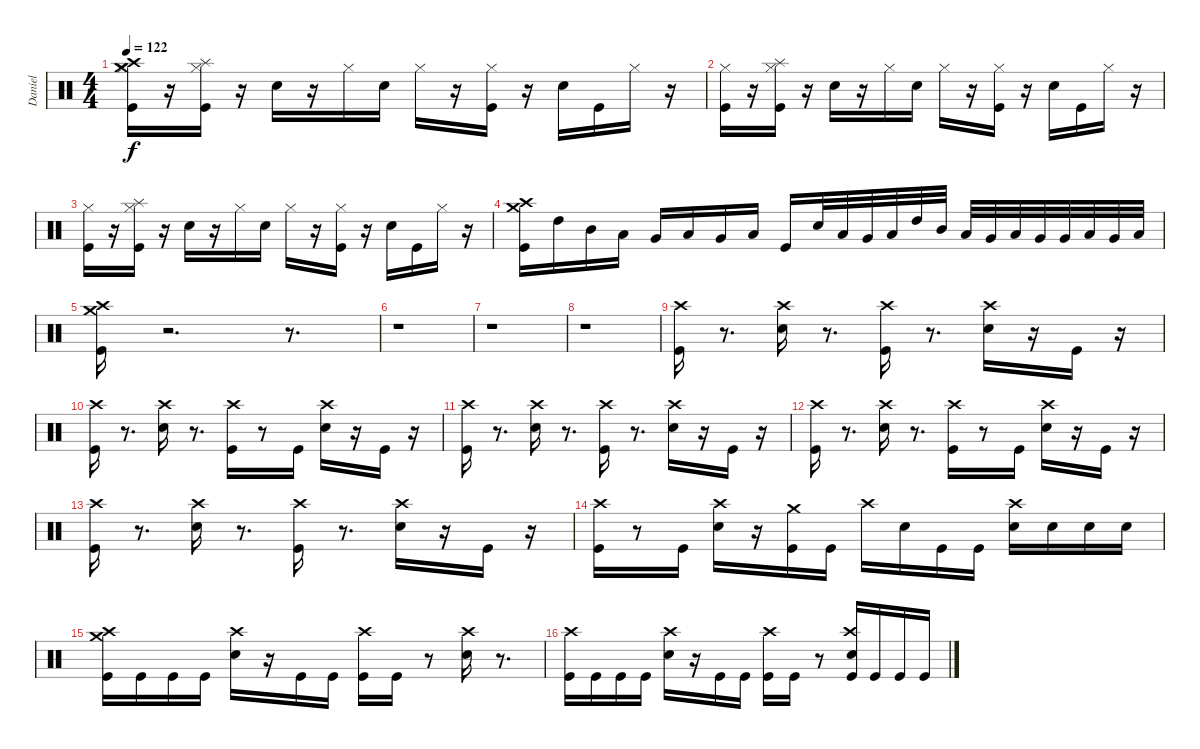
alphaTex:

\track ("Daniel" "Daniel") {instrument percussion}
\staff {score}
\articulation defaults
\ts (4 4)
\tempo 122
\clef neutral
\ks c
("Hi-Hat (closed)" "Kick (hit)" "Crash medium (hit)" "Crash high (hit)").16{dy f} r.16 ("Splash (hit)" "Kick (hit)" "Hi-Hat (closed)").16 r.16 "Electric Snare (hit)".16 r.16 "Hi-Hat (closed)".16 "Electric Snare (hit)".16 "Hi-Hat (closed)".16 r.16 ("Hi-Hat (closed)" "Kick (hit)").16 r.16 "Electric Snare (hit)".16 "Kick (hit)".16 "Hi-Hat (closed)".16 r.16 |
("Hi-Hat (closed)" "Kick (hit)").16 r.16 ("Splash (hit)" "Hi-Hat (closed)" "Kick (hit)").16 r.16 "Electric Snare (hit)".16 r.16 "Hi-Hat (closed)".16 "Electric Snare (hit)".16 "Hi-Hat (closed)".16 r.16 ("Hi-Hat (closed)" "Kick (hit)").16 r.16 "Electric Snare (hit)".16 "Kick (hit)".16 "Hi-Hat (closed)".16 r.16 |
("Hi-Hat (closed)" "Kick (hit)").16 r.16 ("Splash (hit)" "Hi-Hat (closed)" "Kick (hit)").16 r.16 "Electric Snare (hit)".16 r.16 "Hi-Hat (closed)".16 "Electric Snare (hit)".16 "Hi-Hat (closed)".16 r.16 ("Hi-Hat (closed)" "Kick (hit)").16 r.16 "Electric Snare (hit)".16 "Kick (hit)".16 "Hi-Hat (closed)".16 r.16 |
("Kick (hit)" "Crash medium (hit)" "Crash high (hit)").16 "High Tom (hit)".16 "Mid Tom (hit)".16 "Low Tom (hit)".16 "Very Low Tom (hit)".16 "Low Floor Tom (hit)".16 "Very Low Tom (hit)".16 "Low Tom (hit)".16 "Kick (hit)".16 "Snare (hit) 2".32 "Low Tom (hit)".32 "Very Low Tom (hit)".32 "Low Floor Tom (hit)".32 "High Tom (hit)".32 "Mid Tom (hit)".32 "Low Tom (hit)".32 "Very Low Tom (hit)".32 "Low Tom (hit)".32 "Very Low Tom (hit)".32 "Very Low Tom (hit)".32 "Low Tom (hit)".32 "Very Low Tom (hit)".32 "Low Floor Tom (hit)".32 |
("Crash medium (hit)" "Crash high (hit)" "Kick (hit)").16 r.2{d} r.8{d} |
r.1 |
r.1 |
r.1 |
("Crash high (hit)" "Kick (hit)").16 r.8{d} ("Electric Snare (hit)" "Crash high (hit)").16 r.8{d} ("Kick (hit)" "Crash high (hit)").16 r.8{d} ("Electric Snare (hit)" "Crash high (hit)").16 r.16 "Kick (hit)".16 r.16 |
("Kick (hit)" "Crash high (hit)").16 r.8{d} ("Electric Snare (hit)" "Crash high (hit)").16 r.8{d} ("Kick (hit)" "Crash high (hit)").16 r.8 "Kick (hit)".16 ("Electric Snare (hit)" "Crash high (hit)").16 r.16 "Kick (hit)".16 r.16 |
("Crash high (hit)" "Kick (hit)").16 r.8{d} ("Electric Snare (hit)" "Crash high (hit)").16 r.8{d} ("Kick (hit)" "Crash high (hit)").16 r.8{d} ("Electric Snare (hit)" "Crash high (hit)").16 r.16 "Kick (hit)".16 r.16 |
("Kick (hit)" "Crash high (hit)").16 r.8{d} ("Electric Snare (hit)" "Crash high (hit)").16 r.8{d} ("Kick (hit)" "Crash high (hit)").16 r.8 "Kick (hit)".16 ("Electric Snare (hit)" "Crash high (hit)").16 r.16 "Kick (hit)".16 r.16 |
("Crash high (hit)" "Kick (hit)").16 r.8{d} ("Electric Snare (hit)" "Crash high (hit)").16 r.8{d} ("Kick (hit)" "Crash high (hit)").16 r.8{d} ("Electric Snare (hit)" "Crash high (hit)").16 r.16 "Kick (hit)".16 r.16 |
("Kick (hit)" "Crash high (hit)").16 r.8 "Kick (hit)".16 ("Electric Snare (hit)" "Crash high (hit)").16 r.16 ("Crash medium (hit)" "Kick (hit)").16 "Kick (hit)".16 "Crash high (hit)".16 "Electric Snare (hit)".16 "Kick (hit)".16 "Kick (hit)".16 ("Crash high (hit)" "Electric Snare (hit)").16 "Electric Snare (hit)".16 "Electric Snare (hit)".16 "Electric Snare (hit)".16 |
("Crash high (hit)" "Crash medium (hit)" "Kick (hit)").16 "Kick (hit)".16 "Kick (hit)".16 "Kick (hit)".16 ("Crash high (hit)" "Electric Snare (hit)").16 r.16 "Kick (hit)".16 "Kick (hit)".16 ("Crash high (hit)" "Kick (hit)").16 "Kick (hit)".16 r.8 ("Crash high (hit)" "Electric Snare (hit)").16 r.8{d} |
("Crash high (hit)" "Kick (hit)").16 "Kick (hit)".16 "Kick (hit)".16 "Kick (hit)".16 ("Electric Snare (hit)" "Crash high (hit)").16 r.16 "Kick (hit)".16 "Kick (hit)".16 ("Crash high (hit)" "Kick (hit)").16 "Kick (hit)".16 r.8 ("Electric Snare (hit)" "Crash high (hit)" "Kick (hit)").16 "Kick (hit)".16 "Kick (hit)".16 "Kick (hit)".16
